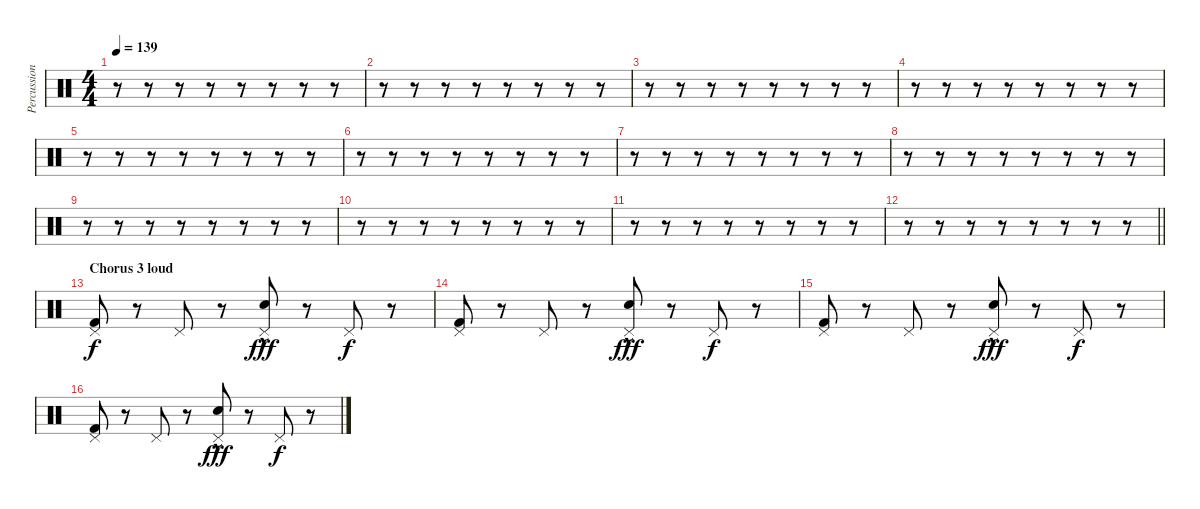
\track ("Percussion" "Percussion") {instrument percussion}
\staff {score}
\articulation defaults
\ts (4 4)
\tempo 139
\clef neutral
\ks c
r.8{dy f} r.8 r.8 r.8 r.8 r.8 r.8 r.8 |
r.8 r.8 r.8 r.8 r.8 r.8 r.8 r.8 |
r.8 r.8 r.8 r.8 r.8 r.8 r.8 r.8 |
r.8 r.8 r.8 r.8 r.8 r.8 r.8 r.8 |
r.8 r.8 r.8 r.8 r.8 r.8 r.8 r.8 |
r.8 r.8 r.8 r.8 r.8 r.8 r.8 r.8 |
r.8 r.8 r.8 r.8 r.8 r.8 r.8 r.8 |
r.8 r.8 r.8 r.8 r.8 r.8 r.8 r.8 |
r.8 r.8 r.8 r.8 r.8 r.8 r.8 r.8 |
r.8 r.8 r.8 r.8 r.8 r.8 r.8 r.8 |
r.8 r.8 r.8 r.8 r.8 r.8 r.8 r.8 |
\barLineRight lightlight
r.8 r.8 r.8 r.8 r.8 r.8 r.8 r.8 |
\section ("" "Chorus 3 loud")
("Kick (hit) 2" "Pedal Hi-Hat (hit)").8 r.8 "Pedal Hi-Hat (hit)".8 r.8 ("Electric Snare (hit)"{hac} "Pedal Hi-Hat (hit)").8{dy fff} r.8 "Pedal Hi-Hat (hit)".8{dy f} r.8 |
("Kick (hit) 2" "Pedal Hi-Hat (hit)").8 r.8 "Pedal Hi-Hat (hit)".8 r.8 ("Electric Snare (hit)"{hac} "Pedal Hi-Hat (hit)").8{dy fff} r.8 "Pedal Hi-Hat (hit)".8{dy f} r.8 |
("Kick (hit) 2" "Pedal Hi-Hat (hit)").8 r.8 "Pedal Hi-Hat (hit)".8 r.8 ("Electric Snare (hit)"{hac} "Pedal Hi-Hat (hit)").8{dy fff} r.8 "Pedal Hi-Hat (hit)".8{dy f} r.8 |
("Kick (hit) 2" "Pedal Hi-Hat (hit)").8 r.8 "Pedal Hi-Hat (hit)".8 r.8 ("Electric Snare (hit)"{hac} "Pedal Hi-Hat (hit)").8{dy fff} r.8 "Pedal Hi-Hat (hit)".8{dy f} r.8
